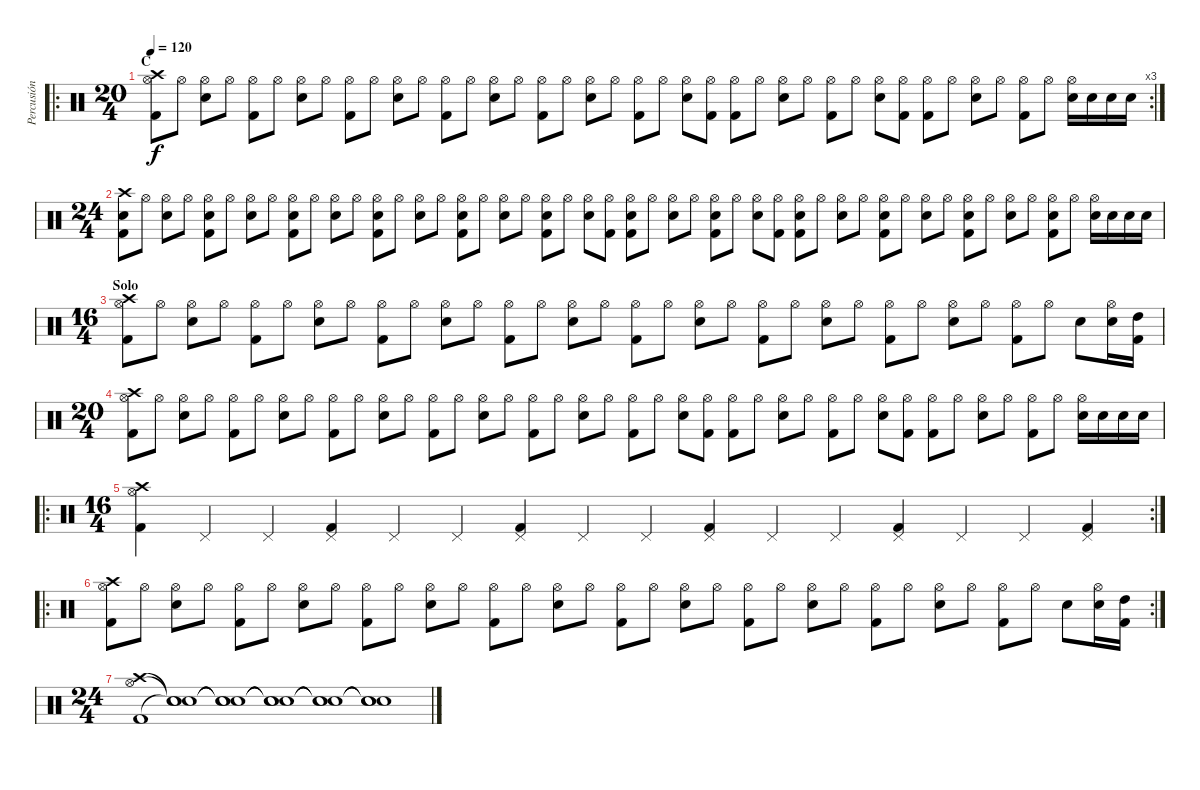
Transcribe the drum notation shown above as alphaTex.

\track ("Percusión" "Percusión") {instrument percussion}
\staff {score}
\articulation defaults
\ro
\rc 3
\ts (20 4)
\section ("" "C")
\tempo 120
\clef neutral
\ks c
("Crash high (hit)" "Hi-Hat (open)" "Kick (hit) 2").8{dy f} "Hi-Hat (open)".8 ("Hi-Hat (open)" "Electric Snare (hit)").8 "Hi-Hat (open)".8 ("Hi-Hat (open)" "Kick (hit) 2").8 "Hi-Hat (open)".8 ("Hi-Hat (open)" "Electric Snare (hit)").8 "Hi-Hat (open)".8 ("Hi-Hat (open)" "Kick (hit) 2").8 "Hi-Hat (open)".8 ("Hi-Hat (open)" "Electric Snare (hit)").8 "Hi-Hat (open)".8 ("Hi-Hat (open)" "Kick (hit) 2").8 "Hi-Hat (open)".8 ("Hi-Hat (open)" "Electric Snare (hit)").8 "Hi-Hat (open)".8 ("Hi-Hat (open)" "Kick (hit) 2").8 "Hi-Hat (open)".8 ("Hi-Hat (open)" "Electric Snare (hit)").8 "Hi-Hat (open)".8 ("Hi-Hat (open)" "Kick (hit) 2").8 "Hi-Hat (open)".8 ("Hi-Hat (open)" "Electric Snare (hit)").8 ("Hi-Hat (open)" "Kick (hit) 2").8 ("Hi-Hat (open)" "Kick (hit) 2").8 "Hi-Hat (open)".8 ("Hi-Hat (open)" "Electric Snare (hit)").8 "Hi-Hat (open)".8 ("Hi-Hat (open)" "Kick (hit) 2").8 "Hi-Hat (open)".8 ("Hi-Hat (open)" "Electric Snare (hit)").8 ("Hi-Hat (open)" "Kick (hit) 2").8 ("Hi-Hat (open)" "Kick (hit) 2").8 "Hi-Hat (open)".8 ("Hi-Hat (open)" "Electric Snare (hit)").8 "Hi-Hat (open)".8 ("Hi-Hat (open)" "Kick (hit) 2").8 "Hi-Hat (open)".8 ("Hi-Hat (open)" "Electric Snare (hit)").16 "Electric Snare (hit)".16 "Electric Snare (hit)".16 "Electric Snare (hit)".16 |
\ts (24 4)
("Crash high (hit)" "Electric Snare (hit)" "Kick (hit) 2").8 "Hi-Hat (open)".8 ("Hi-Hat (open)" "Electric Snare (hit)").8 "Hi-Hat (open)".8 ("Hi-Hat (open)" "Electric Snare (hit)" "Kick (hit) 2").8 "Hi-Hat (open)".8 ("Hi-Hat (open)" "Electric Snare (hit)").8 "Hi-Hat (open)".8 ("Hi-Hat (open)" "Electric Snare (hit)" "Kick (hit) 2").8 "Hi-Hat (open)".8 ("Hi-Hat (open)" "Electric Snare (hit)").8 "Hi-Hat (open)".8 ("Hi-Hat (open)" "Electric Snare (hit)" "Kick (hit) 2").8 "Hi-Hat (open)".8 ("Hi-Hat (open)" "Electric Snare (hit)").8 "Hi-Hat (open)".8 ("Hi-Hat (open)" "Electric Snare (hit)" "Kick (hit) 2").8 "Hi-Hat (open)".8 ("Hi-Hat (open)" "Electric Snare (hit)").8 "Hi-Hat (open)".8 ("Hi-Hat (open)" "Electric Snare (hit)" "Kick (hit) 2").8 "Hi-Hat (open)".8 ("Hi-Hat (open)" "Electric Snare (hit)").8 ("Hi-Hat (open)" "Kick (hit) 2").8 ("Hi-Hat (open)" "Electric Snare (hit)" "Kick (hit) 2").8 "Hi-Hat (open)".8 ("Hi-Hat (open)" "Electric Snare (hit)").8 "Hi-Hat (open)".8 ("Hi-Hat (open)" "Electric Snare (hit)" "Kick (hit) 2").8 "Hi-Hat (open)".8 ("Hi-Hat (open)" "Electric Snare (hit)").8 ("Hi-Hat (open)" "Kick (hit) 2").8 ("Hi-Hat (open)" "Electric Snare (hit)" "Kick (hit) 2").8 "Hi-Hat (open)".8 ("Hi-Hat (open)" "Electric Snare (hit)").8 "Hi-Hat (open)".8 ("Hi-Hat (open)" "Electric Snare (hit)" "Kick (hit) 2").8 "Hi-Hat (open)".8 ("Hi-Hat (open)" "Electric Snare (hit)").8 "Hi-Hat (open)".8 ("Hi-Hat (open)" "Electric Snare (hit)" "Kick (hit) 2").8 "Hi-Hat (open)".8 ("Hi-Hat (open)" "Electric Snare (hit)").8 "Hi-Hat (open)".8 ("Hi-Hat (open)" "Electric Snare (hit)" "Kick (hit) 2").8 "Hi-Hat (open)".8 ("Hi-Hat (open)" "Electric Snare (hit)").16 "Electric Snare (hit)".16 "Electric Snare (hit)".16 "Electric Snare (hit)".16 |
\ts (16 4)
\section ("" "Solo")
("Crash high (hit)" "Hi-Hat (open)" "Kick (hit) 2").8 "Hi-Hat (open)".8 ("Hi-Hat (open)" "Electric Snare (hit)").8 "Hi-Hat (open)".8 ("Hi-Hat (open)" "Kick (hit) 2").8 "Hi-Hat (open)".8 ("Hi-Hat (open)" "Electric Snare (hit)").8 "Hi-Hat (open)".8 ("Hi-Hat (open)" "Kick (hit) 2").8 "Hi-Hat (open)".8 ("Hi-Hat (open)" "Electric Snare (hit)").8 "Hi-Hat (open)".8 ("Hi-Hat (open)" "Kick (hit) 2").8 "Hi-Hat (open)".8 ("Hi-Hat (open)" "Electric Snare (hit)").8 "Hi-Hat (open)".8 ("Hi-Hat (open)" "Kick (hit) 2").8 "Hi-Hat (open)".8 ("Hi-Hat (open)" "Electric Snare (hit)").8 "Hi-Hat (open)".8 ("Hi-Hat (open)" "Kick (hit) 2").8 "Hi-Hat (open)".8 ("Hi-Hat (open)" "Electric Snare (hit)").8 "Hi-Hat (open)".8 ("Hi-Hat (open)" "Kick (hit) 2").8 "Hi-Hat (open)".8 ("Hi-Hat (open)" "Electric Snare (hit)").8 "Hi-Hat (open)".8 ("Hi-Hat (open)" "Kick (hit) 2").8 "Hi-Hat (open)".8 "Electric Snare (hit)".8 ("Hi-Hat (open)" "Electric Snare (hit)").16 ("High Tom (hit)" "Kick (hit) 2").16 |
\ts (20 4)
("Crash high (hit)" "Hi-Hat (open)" "Kick (hit) 2").8 "Hi-Hat (open)".8 ("Hi-Hat (open)" "Electric Snare (hit)").8 "Hi-Hat (open)".8 ("Hi-Hat (open)" "Kick (hit) 2").8 "Hi-Hat (open)".8 ("Hi-Hat (open)" "Electric Snare (hit)").8 "Hi-Hat (open)".8 ("Hi-Hat (open)" "Kick (hit) 2").8 "Hi-Hat (open)".8 ("Hi-Hat (open)" "Electric Snare (hit)").8 "Hi-Hat (open)".8 ("Hi-Hat (open)" "Kick (hit) 2").8 "Hi-Hat (open)".8 ("Hi-Hat (open)" "Electric Snare (hit)").8 "Hi-Hat (open)".8 ("Hi-Hat (open)" "Kick (hit) 2").8 "Hi-Hat (open)".8 ("Hi-Hat (open)" "Electric Snare (hit)").8 "Hi-Hat (open)".8 ("Hi-Hat (open)" "Kick (hit) 2").8 "Hi-Hat (open)".8 ("Hi-Hat (open)" "Electric Snare (hit)").8 ("Hi-Hat (open)" "Kick (hit) 2").8 ("Hi-Hat (open)" "Kick (hit) 2").8 "Hi-Hat (open)".8 ("Hi-Hat (open)" "Electric Snare (hit)").8 "Hi-Hat (open)".8 ("Hi-Hat (open)" "Kick (hit) 2").8 "Hi-Hat (open)".8 ("Hi-Hat (open)" "Electric Snare (hit)").8 ("Hi-Hat (open)" "Kick (hit) 2").8 ("Hi-Hat (open)" "Kick (hit) 2").8 "Hi-Hat (open)".8 ("Hi-Hat (open)" "Electric Snare (hit)").8 "Hi-Hat (open)".8 ("Hi-Hat (open)" "Kick (hit) 2").8 "Hi-Hat (open)".8 ("Hi-Hat (open)" "Electric Snare (hit)").16 "Electric Snare (hit)".16 "Electric Snare (hit)".16 "Electric Snare (hit)".16 |
\ro
\rc 2
\ts (16 4)
("Crash high (hit)" "Hi-Hat (open)" "Kick (hit) 2").4 "Pedal Hi-Hat (hit)".4 "Pedal Hi-Hat (hit)".4 ("Pedal Hi-Hat (hit)" "Kick (hit) 2").4 "Pedal Hi-Hat (hit)".4 "Pedal Hi-Hat (hit)".4 ("Pedal Hi-Hat (hit)" "Kick (hit) 2").4 "Pedal Hi-Hat (hit)".4 "Pedal Hi-Hat (hit)".4 ("Pedal Hi-Hat (hit)" "Kick (hit) 2").4 "Pedal Hi-Hat (hit)".4 "Pedal Hi-Hat (hit)".4 ("Pedal Hi-Hat (hit)" "Kick (hit) 2").4 "Pedal Hi-Hat (hit)".4 "Pedal Hi-Hat (hit)".4 ("Pedal Hi-Hat (hit)" "Kick (hit) 2").4 |
\ro
\rc 2
("Crash high (hit)" "Hi-Hat (open)" "Kick (hit) 2").8 "Hi-Hat (open)".8 ("Hi-Hat (open)" "Electric Snare (hit)").8 "Hi-Hat (open)".8 ("Hi-Hat (open)" "Kick (hit) 2").8 "Hi-Hat (open)".8 ("Hi-Hat (open)" "Electric Snare (hit)").8 "Hi-Hat (open)".8 ("Hi-Hat (open)" "Kick (hit) 2").8 "Hi-Hat (open)".8 ("Hi-Hat (open)" "Electric Snare (hit)").8 "Hi-Hat (open)".8 ("Hi-Hat (open)" "Kick (hit) 2").8 "Hi-Hat (open)".8 ("Hi-Hat (open)" "Electric Snare (hit)").8 "Hi-Hat (open)".8 ("Hi-Hat (open)" "Kick (hit) 2").8 "Hi-Hat (open)".8 ("Hi-Hat (open)" "Electric Snare (hit)").8 "Hi-Hat (open)".8 ("Hi-Hat (open)" "Kick (hit) 2").8 "Hi-Hat (open)".8 ("Hi-Hat (open)" "Electric Snare (hit)").8 "Hi-Hat (open)".8 ("Hi-Hat (open)" "Kick (hit) 2").8 "Hi-Hat (open)".8 ("Hi-Hat (open)" "Electric Snare (hit)").8 "Hi-Hat (open)".8 ("Hi-Hat (open)" "Kick (hit) 2").8 "Hi-Hat (open)".8 "Electric Snare (hit)".8 ("Hi-Hat (open)" "Electric Snare (hit)").16 ("High Tom (hit)" "Kick (hit) 2").16 |
\ts (24 4)
("Crash high (hit)" "Hi-Hat (open)" "Kick (hit) 2").1 ("Snare (hit)"{t} "Snare (hit)"{t} "Snare (hit)"{t}).1 ("Snare (hit)"{t} "Snare (hit)"{t} "Snare (hit)"{t}).1 ("Snare (hit)"{t} "Snare (hit)"{t} "Snare (hit)"{t}).1 ("Snare (hit)"{t} "Snare (hit)"{t} "Snare (hit)"{t}).1 ("Snare (hit)"{t} "Snare (hit)"{t} "Snare (hit)"{t}).1
